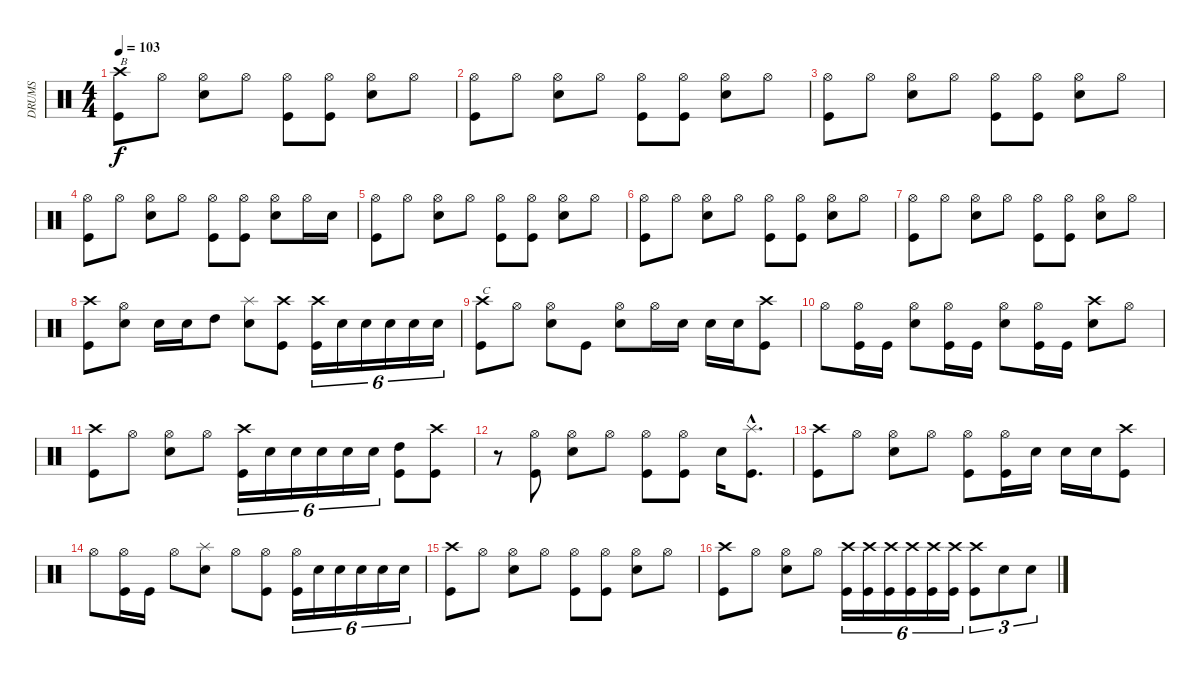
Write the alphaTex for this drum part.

\track ("DRUMS" "DRUMS") {instrument percussion}
\staff {score}
\articulation defaults
\ts (4 4)
\tempo 103
\clef neutral
\ks c
("Crash high (hit)" "Kick (hit)").8{txt "B" dy f} "Hi-Hat (open)".8 ("Hi-Hat (open)" "Electric Snare (hit)").8 "Hi-Hat (open)".8 ("Hi-Hat (open)" "Kick (hit)").8 ("Hi-Hat (open)" "Kick (hit)").8 ("Hi-Hat (open)" "Electric Snare (hit)").8 "Hi-Hat (open)".8 |
("Hi-Hat (open)" "Kick (hit)").8 "Hi-Hat (open)".8 ("Hi-Hat (open)" "Electric Snare (hit)").8 "Hi-Hat (open)".8 ("Hi-Hat (open)" "Kick (hit)").8 ("Hi-Hat (open)" "Kick (hit)").8 ("Hi-Hat (open)" "Electric Snare (hit)").8 "Hi-Hat (open)".8 |
("Hi-Hat (open)" "Kick (hit)").8 "Hi-Hat (open)".8 ("Hi-Hat (open)" "Electric Snare (hit)").8 "Hi-Hat (open)".8 ("Hi-Hat (open)" "Kick (hit)").8 ("Hi-Hat (open)" "Kick (hit)").8 ("Hi-Hat (open)" "Electric Snare (hit)").8 "Hi-Hat (open)".8 |
("Hi-Hat (open)" "Kick (hit)").8 "Hi-Hat (open)".8 ("Hi-Hat (open)" "Electric Snare (hit)").8 "Hi-Hat (open)".8 ("Hi-Hat (open)" "Kick (hit)").8 ("Hi-Hat (open)" "Kick (hit)").8 ("Hi-Hat (open)" "Electric Snare (hit)").8 "Hi-Hat (open)".16 "Electric Snare (hit)".16 |
("Hi-Hat (open)" "Kick (hit)").8 "Hi-Hat (open)".8 ("Hi-Hat (open)" "Electric Snare (hit)").8 "Hi-Hat (open)".8 ("Hi-Hat (open)" "Kick (hit)").8 ("Hi-Hat (open)" "Kick (hit)").8 ("Hi-Hat (open)" "Electric Snare (hit)").8 "Hi-Hat (open)".8 |
("Hi-Hat (open)" "Kick (hit)").8 "Hi-Hat (open)".8 ("Hi-Hat (open)" "Electric Snare (hit)").8 "Hi-Hat (open)".8 ("Hi-Hat (open)" "Kick (hit)").8 ("Hi-Hat (open)" "Kick (hit)").8 ("Hi-Hat (open)" "Electric Snare (hit)").8 "Hi-Hat (open)".8 |
("Hi-Hat (open)" "Kick (hit)").8 "Hi-Hat (open)".8 ("Hi-Hat (open)" "Electric Snare (hit)").8 "Hi-Hat (open)".8 ("Hi-Hat (open)" "Kick (hit)").8 ("Hi-Hat (open)" "Kick (hit)").8 ("Hi-Hat (open)" "Electric Snare (hit)").8 "Hi-Hat (open)".8 |
("Crash high (hit)" "Kick (hit)").8 ("Hi-Hat (open)" "Electric Snare (hit)").8 "Electric Snare (hit)".16 "Electric Snare (hit)".16 "High Tom (hit)".8 ("Splash (hit)" "Electric Snare (hit)").8 ("Crash high (hit)" "Kick (hit)").8 ("Crash high (hit)" "Kick (hit)").16{tu (6 4)} "Electric Snare (hit)".16{tu (6 4)} "Electric Snare (hit)".16{tu (6 4)} "Electric Snare (hit)".16{tu (6 4)} "Electric Snare (hit)".16{tu (6 4)} "Electric Snare (hit)".16{tu (6 4)} |
("Crash high (hit)" "Kick (hit)").8{txt "C"} "Hi-Hat (open)".8 ("Hi-Hat (open)" "Electric Snare (hit)").8 "Kick (hit)".8 ("Hi-Hat (open)" "Electric Snare (hit)").8 "Hi-Hat (open)".16 "Electric Snare (hit)".16 "Electric Snare (hit)".16 "Electric Snare (hit)".16 ("Crash high (hit)" "Kick (hit)").8 |
"Hi-Hat (open)".8 ("Hi-Hat (open)" "Kick (hit)").16 "Kick (hit)".16 ("Hi-Hat (open)" "Electric Snare (hit)").8 ("Hi-Hat (open)" "Kick (hit)").16 "Kick (hit)".16 ("Hi-Hat (open)" "Electric Snare (hit)").8 ("Hi-Hat (open)" "Kick (hit)").16 "Kick (hit)".16 ("Crash high (hit)" "Electric Snare (hit)").8 "Hi-Hat (open)".8 |
("Crash high (hit)" "Kick (hit)").8 "Hi-Hat (open)".8 ("Hi-Hat (open)" "Electric Snare (hit)").8 "Hi-Hat (open)".8 ("Crash high (hit)" "Kick (hit)").16{tu (6 4)} "Electric Snare (hit)".16{tu (6 4)} "Electric Snare (hit)".16{tu (6 4)} "Electric Snare (hit)".16{tu (6 4)} "Electric Snare (hit)".16{tu (6 4)} "Electric Snare (hit)".16{tu (6 4)} ("High Tom (hit)" "Kick (hit)").8 ("Crash high (hit)" "Kick (hit)").8 |
r.8 ("Hi-Hat (open)" "Kick (hit)").8 ("Hi-Hat (open)" "Electric Snare (hit)").8 "Hi-Hat (open)".8 ("Hi-Hat (open)" "Kick (hit)").8 ("Hi-Hat (open)" "Kick (hit)").8 "Electric Snare (hit)".16 ("Splash (hit)"{hac} "Kick (hit)"{hac}).8{d} |
("Crash high (hit)" "Kick (hit)").8 "Hi-Hat (open)".8 ("Hi-Hat (open)" "Electric Snare (hit)").8 "Hi-Hat (open)".8 ("Hi-Hat (open)" "Kick (hit)").8 ("Hi-Hat (open)" "Kick (hit)").16 "Electric Snare (hit)".16 "Electric Snare (hit)".16 "Electric Snare (hit)".16 ("Crash high (hit)" "Kick (hit)").8 |
"Hi-Hat (open)".8 ("Hi-Hat (open)" "Kick (hit)").16 "Kick (hit)".16 "Hi-Hat (open)".8 ("Splash (hit)" "Electric Snare (hit)").8 "Hi-Hat (open)".8 ("Hi-Hat (open)" "Kick (hit)").8 ("Hi-Hat (open)" "Kick (hit)").16{tu (6 4)} "Electric Snare (hit)".16{tu (6 4)} "Electric Snare (hit)".16{tu (6 4)} "Electric Snare (hit)".16{tu (6 4)} "Electric Snare (hit)".16{tu (6 4)} "Electric Snare (hit)".16{tu (6 4)} |
("Crash high (hit)" "Kick (hit)").8 "Hi-Hat (open)".8 ("Hi-Hat (open)" "Electric Snare (hit)").8 "Hi-Hat (open)".8 ("Hi-Hat (open)" "Kick (hit)").8 ("Hi-Hat (open)" "Kick (hit)").8 ("Hi-Hat (open)" "Electric Snare (hit)").8 "Hi-Hat (open)".8 |
("Crash high (hit)" "Kick (hit)").8 "Hi-Hat (open)".8 ("Hi-Hat (open)" "Electric Snare (hit)").8 "Hi-Hat (open)".8 ("Crash high (hit)" "Kick (hit)").16{tu (6 4)} ("Crash high (hit)" "Kick (hit)").16{tu (6 4)} ("Crash high (hit)" "Kick (hit)").16{tu (6 4)} ("Crash high (hit)" "Kick (hit)").16{tu (6 4)} ("Crash high (hit)" "Kick (hit)").16{tu (6 4)} ("Crash high (hit)" "Kick (hit)").16{tu (6 4)} ("Crash high (hit)" "Kick (hit)").8{tu (3 2)} "Electric Snare (hit)".8{tu (3 2)} "Electric Snare (hit)".8{tu (3 2)}
